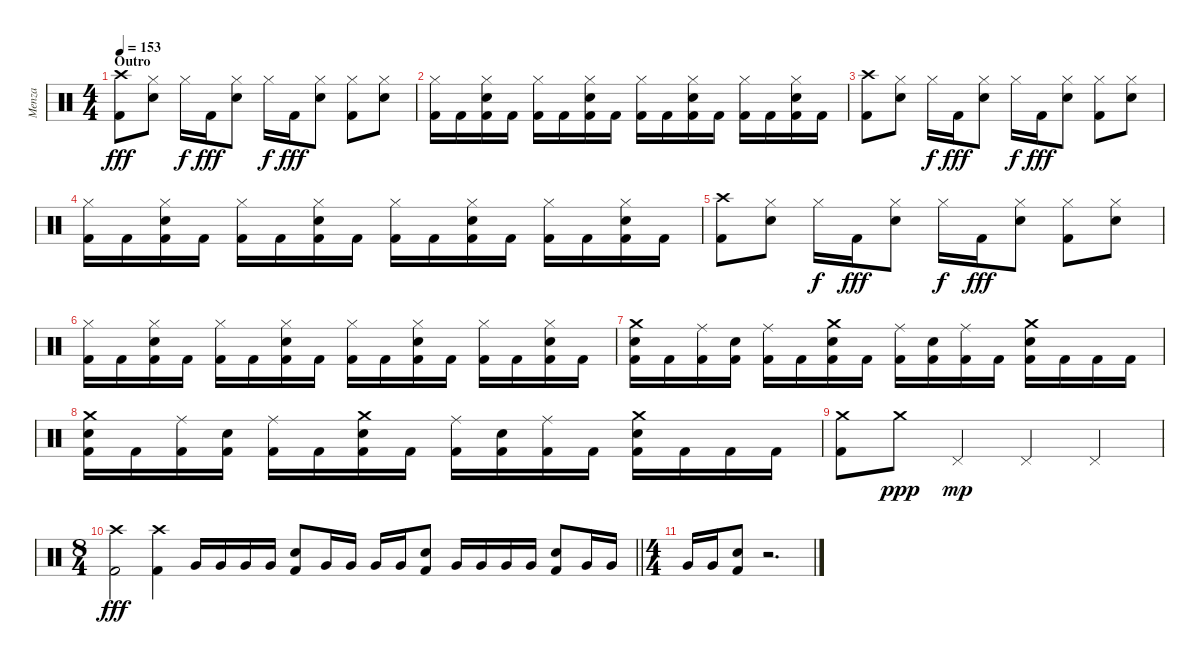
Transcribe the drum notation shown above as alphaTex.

\track ("Menza" "Menza") {instrument percussion}
\staff {score}
\articulation defaults
\ts (4 4)
\section ("" "Outro")
\tempo 153
\clef neutral
\ks c
("Crash high (hit)" "Kick (hit) 2").8{dy fff} ("Hi-Hat (closed)" "Snare (hit) 2").8 "Hi-Hat (closed)".16{dy f} "Kick (hit) 2".16{dy fff} ("Hi-Hat (closed)" "Snare (hit) 2").8 "Hi-Hat (closed)".16{dy f} "Kick (hit) 2".16{dy fff} ("Hi-Hat (closed)" "Snare (hit) 2").8 ("Hi-Hat (closed)" "Kick (hit) 2").8 ("Hi-Hat (closed)" "Snare (hit) 2").8 |
("Hi-Hat (closed)" "Kick (hit) 2").16 "Kick (hit) 2".16 ("Hi-Hat (closed)" "Snare (hit) 2" "Kick (hit) 2").16 "Kick (hit) 2".16 ("Hi-Hat (closed)" "Kick (hit) 2").16 "Kick (hit) 2".16 ("Hi-Hat (closed)" "Snare (hit) 2" "Kick (hit) 2").16 "Kick (hit) 2".16 ("Hi-Hat (closed)" "Kick (hit) 2").16 "Kick (hit) 2".16 ("Hi-Hat (closed)" "Snare (hit) 2" "Kick (hit) 2").16 "Kick (hit) 2".16 ("Hi-Hat (closed)" "Kick (hit) 2").16 "Kick (hit) 2".16 ("Hi-Hat (closed)" "Snare (hit) 2" "Kick (hit) 2").16 "Kick (hit) 2".16 |
("Crash high (hit)" "Kick (hit) 2").8 ("Hi-Hat (closed)" "Snare (hit) 2").8 "Hi-Hat (closed)".16{dy f} "Kick (hit) 2".16{dy fff} ("Hi-Hat (closed)" "Snare (hit) 2").8 "Hi-Hat (closed)".16{dy f} "Kick (hit) 2".16{dy fff} ("Hi-Hat (closed)" "Snare (hit) 2").8 ("Hi-Hat (closed)" "Kick (hit) 2").8 ("Hi-Hat (closed)" "Snare (hit) 2").8 |
("Hi-Hat (closed)" "Kick (hit) 2").16 "Kick (hit) 2".16 ("Hi-Hat (closed)" "Snare (hit) 2" "Kick (hit) 2").16 "Kick (hit) 2".16 ("Hi-Hat (closed)" "Kick (hit) 2").16 "Kick (hit) 2".16 ("Hi-Hat (closed)" "Snare (hit) 2" "Kick (hit) 2").16 "Kick (hit) 2".16 ("Hi-Hat (closed)" "Kick (hit) 2").16 "Kick (hit) 2".16 ("Hi-Hat (closed)" "Snare (hit) 2" "Kick (hit) 2").16 "Kick (hit) 2".16 ("Hi-Hat (closed)" "Kick (hit) 2").16 "Kick (hit) 2".16 ("Hi-Hat (closed)" "Snare (hit) 2" "Kick (hit) 2").16 "Kick (hit) 2".16 |
("Crash high (hit)" "Kick (hit) 2").8 ("Hi-Hat (closed)" "Snare (hit) 2").8 "Hi-Hat (closed)".16{dy f} "Kick (hit) 2".16{dy fff} ("Hi-Hat (closed)" "Snare (hit) 2").8 "Hi-Hat (closed)".16{dy f} "Kick (hit) 2".16{dy fff} ("Hi-Hat (closed)" "Snare (hit) 2").8 ("Hi-Hat (closed)" "Kick (hit) 2").8 ("Hi-Hat (closed)" "Snare (hit) 2").8 |
("Hi-Hat (closed)" "Kick (hit) 2").16 "Kick (hit) 2".16 ("Hi-Hat (closed)" "Snare (hit) 2" "Kick (hit) 2").16 "Kick (hit) 2".16 ("Hi-Hat (closed)" "Kick (hit) 2").16 "Kick (hit) 2".16 ("Hi-Hat (closed)" "Snare (hit) 2" "Kick (hit) 2").16 "Kick (hit) 2".16 ("Hi-Hat (closed)" "Kick (hit) 2").16 "Kick (hit) 2".16 ("Hi-Hat (closed)" "Snare (hit) 2" "Kick (hit) 2").16 "Kick (hit) 2".16 ("Hi-Hat (closed)" "Kick (hit) 2").16 "Kick (hit) 2".16 ("Hi-Hat (closed)" "Snare (hit) 2" "Kick (hit) 2").16 "Kick (hit) 2".16 |
("Crash medium (hit)" "Snare (hit) 2" "Kick (hit) 2").16 "Kick (hit) 2".16 ("Ride (middle)" "Kick (hit) 2").16 ("Snare (hit) 2" "Kick (hit) 2").16 ("Ride (middle)" "Kick (hit) 2").16 "Kick (hit) 2".16 ("Crash medium (hit)" "Snare (hit) 2" "Kick (hit) 2").16 "Kick (hit) 2".16 ("Ride (middle)" "Kick (hit) 2").16 ("Snare (hit) 2" "Kick (hit) 2").16 ("Ride (middle)" "Kick (hit) 2").16 "Kick (hit) 2".16 ("Crash medium (hit)" "Snare (hit) 2" "Kick (hit) 2").16 "Kick (hit) 2".16 "Kick (hit) 2".16 "Kick (hit) 2".16 |
("Crash medium (hit)" "Snare (hit) 2" "Kick (hit) 2").16 "Kick (hit) 2".16 ("Ride (middle)" "Kick (hit) 2").16 ("Snare (hit) 2" "Kick (hit) 2").16 ("Ride (middle)" "Kick (hit) 2").16 "Kick (hit) 2".16 ("Crash medium (hit)" "Snare (hit) 2" "Kick (hit) 2").16 "Kick (hit) 2".16 ("Ride (middle)" "Kick (hit) 2").16 ("Snare (hit) 2" "Kick (hit) 2").16 ("Ride (middle)" "Kick (hit) 2").16 "Kick (hit) 2".16 ("Crash medium (hit)" "Snare (hit) 2" "Kick (hit) 2").16 "Kick (hit) 2".16 "Kick (hit) 2".16 "Kick (hit) 2".16 |
("Crash medium (hit)" "Kick (hit) 2").8 "Crash medium (hit)".8{dy ppp} "Pedal Hi-Hat (hit)".4{dy mp} "Pedal Hi-Hat (hit)".4 "Pedal Hi-Hat (hit)".4 |
\ts (8 4)
\barLineRight lightlight
("Crash high (hit)" "Kick (hit) 2").2{dy fff} ("Crash high (hit)" "Kick (hit) 2").4 "Very Low Tom (hit)".16 "Very Low Tom (hit)".16 "Very Low Tom (hit)".16 "Very Low Tom (hit)".16 ("Snare (hit) 2" "Kick (hit) 2").8 "Very Low Tom (hit)".16 "Very Low Tom (hit)".16 "Very Low Tom (hit)".16 "Very Low Tom (hit)".16 ("Snare (hit) 2" "Kick (hit) 2").8 "Very Low Tom (hit)".16 "Very Low Tom (hit)".16 "Very Low Tom (hit)".16 "Very Low Tom (hit)".16 ("Snare (hit) 2" "Kick (hit) 2").8 "Very Low Tom (hit)".16 "Very Low Tom (hit)".16 |
\ts (4 4)
"Very Low Tom (hit)".16 "Very Low Tom (hit)".16 ("Snare (hit) 2" "Kick (hit) 2").8 r.2{d}
